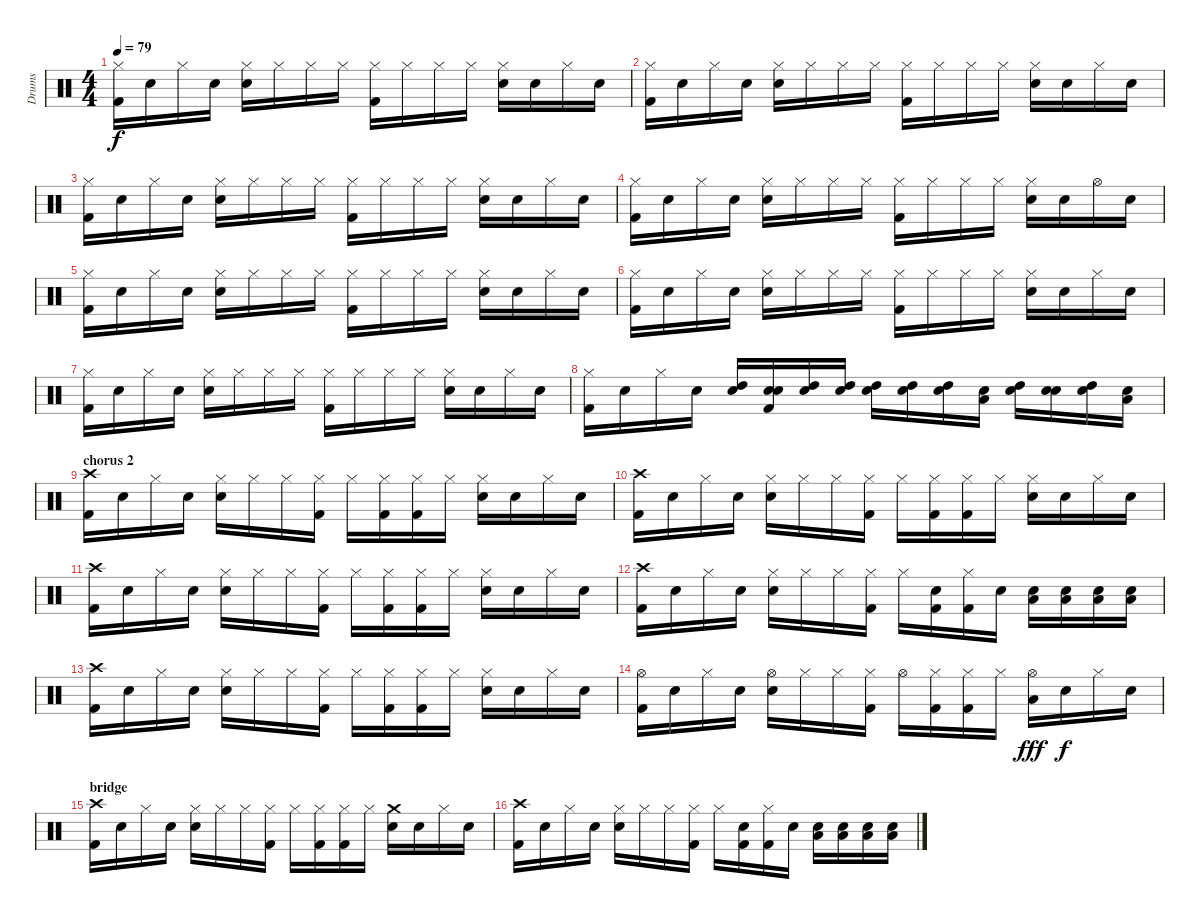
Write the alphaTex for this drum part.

\track ("Drums" "Drums") {instrument percussion}
\staff {score}
\articulation defaults
\ts (4 4)
\tempo 79
\clef neutral
\ks c
("Hi-Hat (closed)" "Kick (hit) 2").16{dy f} "Snare (hit)"{x}.16 "Hi-Hat (closed)".16 "Snare (hit)"{x}.16 ("Hi-Hat (closed)" "Snare (hit) 2").16 "Hi-Hat (closed)"{x}.16 "Hi-Hat (closed)".16 "Hi-Hat (closed)"{x}.16 ("Hi-Hat (closed)" "Kick (hit) 2").16 "Hi-Hat (closed)"{x}.16 "Hi-Hat (closed)".16 "Hi-Hat (closed)"{x}.16 ("Hi-Hat (closed)" "Snare (hit) 2").16 "Snare (hit)"{x}.16 "Hi-Hat (closed)".16 "Snare (hit)"{x}.16 |
("Hi-Hat (closed)" "Kick (hit) 2").16 "Snare (hit)"{x}.16 "Hi-Hat (closed)".16 "Snare (hit)"{x}.16 ("Hi-Hat (closed)" "Snare (hit) 2").16 "Hi-Hat (closed)"{x}.16 "Hi-Hat (closed)".16 "Hi-Hat (closed)"{x}.16 ("Hi-Hat (closed)" "Kick (hit) 2").16 "Hi-Hat (closed)"{x}.16 "Hi-Hat (closed)".16 "Hi-Hat (closed)"{x}.16 ("Hi-Hat (closed)" "Snare (hit) 2").16 "Snare (hit)"{x}.16 "Hi-Hat (closed)".16 "Snare (hit)"{x}.16 |
("Hi-Hat (closed)" "Kick (hit) 2").16 "Snare (hit)"{x}.16 "Hi-Hat (closed)".16 "Snare (hit)"{x}.16 ("Hi-Hat (closed)" "Snare (hit) 2").16 "Hi-Hat (closed)"{x}.16 "Hi-Hat (closed)".16 "Hi-Hat (closed)"{x}.16 ("Hi-Hat (closed)" "Kick (hit) 2").16 "Hi-Hat (closed)"{x}.16 "Hi-Hat (closed)".16 "Hi-Hat (closed)"{x}.16 ("Hi-Hat (closed)" "Snare (hit) 2").16 "Snare (hit)"{x}.16 "Hi-Hat (closed)".16 "Snare (hit)"{x}.16 |
("Hi-Hat (closed)" "Kick (hit) 2").16 "Snare (hit)"{x}.16 "Hi-Hat (closed)".16 "Snare (hit)"{x}.16 ("Hi-Hat (closed)" "Snare (hit) 2").16 "Hi-Hat (closed)"{x}.16 "Hi-Hat (closed)".16 "Hi-Hat (closed)"{x}.16 ("Hi-Hat (closed)" "Kick (hit) 2").16 "Hi-Hat (closed)"{x}.16 "Hi-Hat (closed)".16 "Hi-Hat (closed)"{x}.16 ("Hi-Hat (closed)" "Snare (hit) 2").16 "Snare (hit)"{x}.16 "Hi-Hat (open)".16 "Snare (hit)"{x}.16 |
("Hi-Hat (closed)" "Kick (hit) 2").16 "Snare (hit)"{x}.16 "Hi-Hat (closed)".16 "Snare (hit)"{x}.16 ("Hi-Hat (closed)" "Snare (hit) 2").16 "Hi-Hat (closed)"{x}.16 "Hi-Hat (closed)".16 "Hi-Hat (closed)"{x}.16 ("Hi-Hat (closed)" "Kick (hit) 2").16 "Hi-Hat (closed)"{x}.16 "Hi-Hat (closed)".16 "Hi-Hat (closed)"{x}.16 ("Hi-Hat (closed)" "Snare (hit) 2").16 "Snare (hit)"{x}.16 "Hi-Hat (closed)".16 "Snare (hit)"{x}.16 |
("Hi-Hat (closed)" "Kick (hit) 2").16 "Snare (hit)"{x}.16 "Hi-Hat (closed)".16 "Snare (hit)"{x}.16 ("Hi-Hat (closed)" "Snare (hit) 2").16 "Hi-Hat (closed)"{x}.16 "Hi-Hat (closed)".16 "Hi-Hat (closed)"{x}.16 ("Hi-Hat (closed)" "Kick (hit) 2").16 "Hi-Hat (closed)"{x}.16 "Hi-Hat (closed)".16 "Hi-Hat (closed)"{x}.16 ("Hi-Hat (closed)" "Snare (hit) 2").16 "Snare (hit)"{x}.16 "Hi-Hat (closed)".16 "Snare (hit)"{x}.16 |
("Hi-Hat (closed)" "Kick (hit) 2").16 "Snare (hit)"{x}.16 "Hi-Hat (closed)".16 "Snare (hit)"{x}.16 ("Hi-Hat (closed)" "Snare (hit) 2").16 "Hi-Hat (closed)"{x}.16 "Hi-Hat (closed)".16 "Hi-Hat (closed)"{x}.16 ("Hi-Hat (closed)" "Kick (hit) 2").16 "Hi-Hat (closed)"{x}.16 "Hi-Hat (closed)".16 "Hi-Hat (closed)"{x}.16 ("Hi-Hat (closed)" "Snare (hit) 2").16 "Snare (hit)"{x}.16 "Hi-Hat (closed)".16 "Snare (hit)"{x}.16 |
("Hi-Hat (closed)" "Kick (hit) 2").16 "Snare (hit)"{x}.16 "Hi-Hat (closed)".16 "Snare (hit)"{x}.16 ("Snare (hit) 2" "High Tom (hit)").16 ("Snare (hit)"{x} "Kick (hit) 2" "Snare (hit)"{x}).16 ("Snare (hit) 2" "High Tom (hit)").16 ("Snare (hit) 2"{x} "High Tom (hit)"{x}).16 ("Snare (hit) 2" "High Tom (hit)"{x}).16 ("Snare (hit) 2" "High Tom (hit)"{x}).16 ("Snare (hit) 2" "High Tom (hit)").16 ("Snare (hit) 2" "Low Tom (hit)").16 ("Snare (hit) 2" "High Tom (hit)"{x}).16 ("Snare (hit) 2" "Snare (hit)"{x}).16 ("Snare (hit) 2" "High Tom (hit)").16 ("Snare (hit) 2" "Low Tom (hit)").16 |
\section ("" "chorus 2")
("Crash high (hit)" "Kick (hit) 2").16 "Snare (hit)"{x}.16 "Hi-Hat (closed)".16 "Snare (hit)"{x}.16 ("Hi-Hat (closed)" "Snare (hit) 2").16 "Hi-Hat (closed)"{x}.16 "Hi-Hat (closed)".16 ("Hi-Hat (closed)"{x} "Kick (hit) 2").16 "Hi-Hat (closed)".16 ("Hi-Hat (closed)"{x} "Kick (hit) 2").16 ("Hi-Hat (closed)" "Kick (hit) 2").16 "Hi-Hat (closed)"{x}.16 ("Hi-Hat (closed)" "Snare (hit) 2").16 "Snare (hit)"{x}.16 "Hi-Hat (closed)".16 "Snare (hit)"{x}.16 |
("Crash high (hit)" "Kick (hit) 2").16 "Snare (hit)"{x}.16 "Hi-Hat (closed)".16 "Snare (hit)"{x}.16 ("Hi-Hat (closed)" "Snare (hit) 2").16 "Hi-Hat (closed)"{x}.16 "Hi-Hat (closed)".16 ("Hi-Hat (closed)"{x} "Kick (hit) 2").16 "Hi-Hat (closed)".16 ("Hi-Hat (closed)"{x} "Kick (hit) 2").16 ("Hi-Hat (closed)" "Kick (hit) 2").16 "Hi-Hat (closed)"{x}.16 ("Hi-Hat (closed)" "Snare (hit) 2").16 "Snare (hit)"{x}.16 "Hi-Hat (closed)".16 "Snare (hit)"{x}.16 |
("Crash high (hit)" "Kick (hit) 2").16 "Snare (hit)"{x}.16 "Hi-Hat (closed)".16 "Snare (hit)"{x}.16 ("Hi-Hat (closed)" "Snare (hit) 2").16 "Hi-Hat (closed)"{x}.16 "Hi-Hat (closed)".16 ("Hi-Hat (closed)"{x} "Kick (hit) 2").16 "Hi-Hat (closed)".16 ("Hi-Hat (closed)"{x} "Kick (hit) 2").16 ("Hi-Hat (closed)" "Kick (hit) 2").16 "Hi-Hat (closed)"{x}.16 ("Hi-Hat (closed)" "Snare (hit) 2").16 "Snare (hit)"{x}.16 "Hi-Hat (closed)".16 "Snare (hit)"{x}.16 |
("Crash high (hit)" "Kick (hit) 2").16 "Snare (hit)"{x}.16 "Hi-Hat (closed)".16 "Snare (hit)"{x}.16 ("Hi-Hat (closed)" "Snare (hit) 2").16 "Hi-Hat (closed)"{x}.16 "Hi-Hat (closed)".16 ("Hi-Hat (closed)"{x} "Kick (hit) 2").16 "Hi-Hat (closed)".16 ("Snare (hit)"{x} "Kick (hit) 2").16 ("Hi-Hat (closed)" "Kick (hit) 2").16 "Snare (hit)"{x}.16 ("Snare (hit) 2" "Low Tom (hit)").16 ("Snare (hit) 2" "Low Tom (hit)").16 ("Snare (hit) 2" "Low Floor Tom (hit)").16 ("Snare (hit) 2" "Low Floor Tom (hit)").16 |
("Crash high (hit)" "Kick (hit) 2").16 "Snare (hit)"{x}.16 "Hi-Hat (closed)".16 "Snare (hit)"{x}.16 ("Hi-Hat (closed)" "Snare (hit) 2").16 "Hi-Hat (closed)"{x}.16 "Hi-Hat (closed)".16 ("Hi-Hat (closed)"{x} "Kick (hit) 2").16 "Hi-Hat (closed)".16 ("Hi-Hat (closed)"{x} "Kick (hit) 2").16 ("Hi-Hat (closed)" "Kick (hit) 2").16 "Hi-Hat (closed)"{x}.16 ("Hi-Hat (closed)" "Snare (hit) 2").16 "Snare (hit)"{x}.16 "Hi-Hat (closed)".16 "Snare (hit)"{x}.16 |
("Hi-Hat (open)" "Kick (hit) 2").16 "Snare (hit)"{x}.16 "Hi-Hat (closed)".16 "Snare (hit)"{x}.16 ("Hi-Hat (open)" "Snare (hit) 2").16 "Hi-Hat (closed)"{x}.16 "Hi-Hat (closed)".16 ("Hi-Hat (closed)"{x} "Kick (hit) 2").16 "Hi-Hat (open)".16 ("Hi-Hat (closed)"{x} "Kick (hit) 2").16 ("Hi-Hat (closed)" "Kick (hit) 2").16 "Hi-Hat (closed)"{x}.16 ("Hi-Hat (open)" "Low Tom (hit)").16{dy fff} "Snare (hit)"{x}.16{dy f} "Hi-Hat (closed)".16 "Snare (hit)"{x}.16 |
\section ("" "bridge")
("Crash high (hit)" "Kick (hit) 2").16 "Snare (hit)"{x}.16 "Hi-Hat (closed)".16 "Snare (hit)"{x}.16 ("Hi-Hat (closed)" "Snare (hit) 2").16 "Hi-Hat (closed)"{x}.16 "Hi-Hat (closed)".16 ("Hi-Hat (closed)"{x} "Kick (hit) 2").16 "Hi-Hat (closed)".16 ("Hi-Hat (closed)"{x} "Kick (hit) 2").16 ("Hi-Hat (closed)" "Kick (hit) 2").16 "Hi-Hat (closed)"{x}.16 ("Crash medium (hit)" "Snare (hit) 2").16 "Snare (hit)"{x}.16 "Hi-Hat (closed)".16 "Snare (hit)"{x}.16 |
("Crash high (hit)" "Kick (hit) 2").16 "Snare (hit)"{x}.16 "Hi-Hat (closed)".16 "Snare (hit)"{x}.16 ("Hi-Hat (closed)" "Snare (hit) 2").16 "Hi-Hat (closed)"{x}.16 "Hi-Hat (closed)".16 ("Hi-Hat (closed)"{x} "Kick (hit) 2").16 "Hi-Hat (closed)".16 ("Snare (hit)"{x} "Kick (hit) 2").16 ("Hi-Hat (closed)" "Kick (hit) 2").16 "Snare (hit)"{x}.16 ("Snare (hit) 2" "Low Tom (hit)").16 ("Snare (hit) 2" "Low Tom (hit)").16 ("Snare (hit) 2" "Low Floor Tom (hit)").16 ("Snare (hit) 2" "Low Floor Tom (hit)").16
